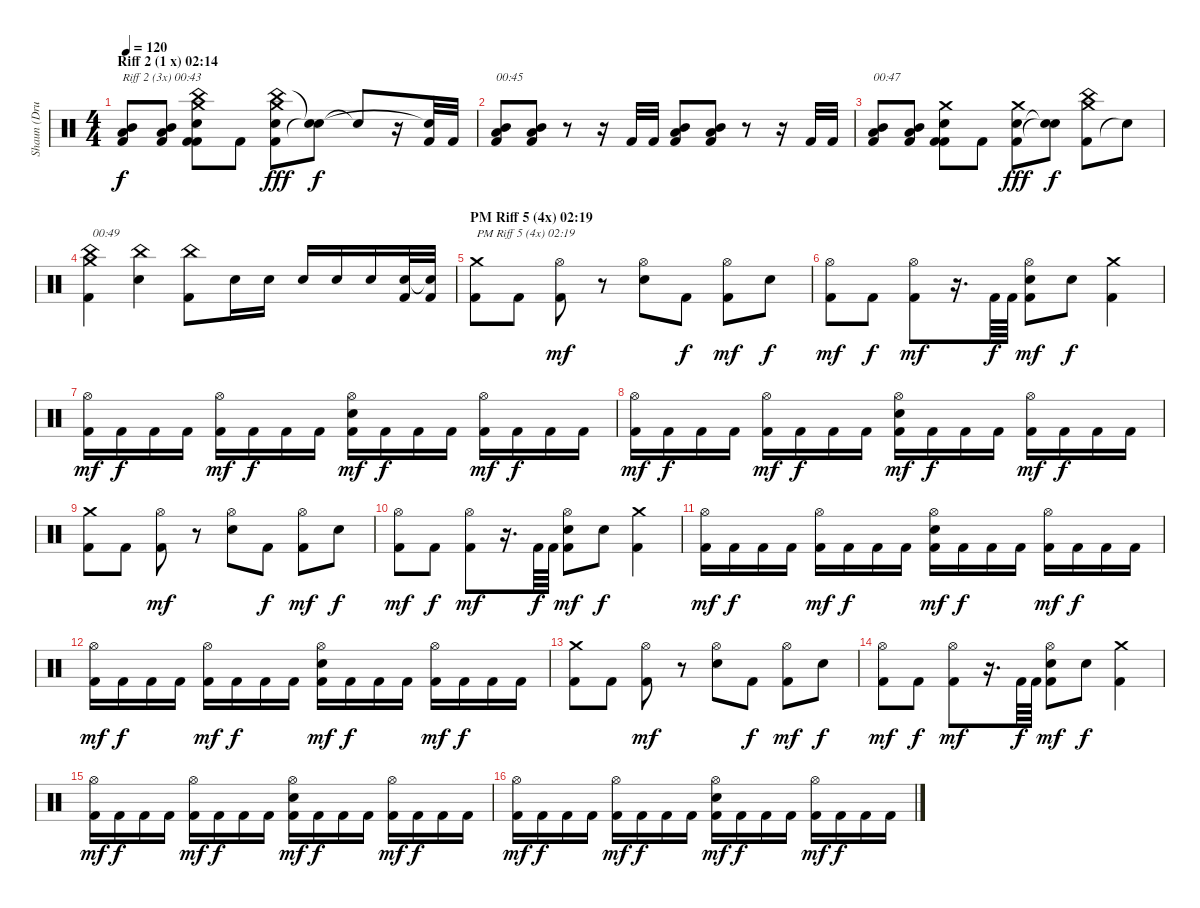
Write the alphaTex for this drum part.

\track ("Shaun (Drums Of DOOM)" "Shaun (Dru") {instrument percussion}
\staff {score}
\articulation defaults
\ts (4 4)
\section ("" "Riff 2 (1 x) 02:14")
\tempo 120
\clef neutral
\ks c
("Kick (hit) 2" "Low Tom (hit)" "Mid Tom (hit)").8{txt "Riff 2 (3x) 00:43" dy f} ("Kick (hit) 2" "Low Tom (hit)" "Mid Tom (hit)").8 ("Kick (hit) 2" "Kick (hit) 2" "China (hit)" "Electric Snare (hit)" "Crash medium (hit)").8 "Kick (hit) 2".8 ("Kick (hit) 2" "China (hit)" "Electric Snare (hit)" "Crash medium (hit)").8{dy fff} ("Snare (hit)"{t} "Snare (hit)"{t}).8{dy f} "Snare (hit)"{t}.8 r.16 ("Kick (hit) 2" "Snare (hit)"{t}).32 "Kick (hit) 2".32 |
("Kick (hit) 2" "Low Tom (hit)" "Mid Tom (hit)").8{txt "00:45"} ("Kick (hit) 2" "Low Tom (hit)" "Mid Tom (hit)").8 r.8 r.16 "Kick (hit) 2".32 "Kick (hit) 2".32 ("Kick (hit) 2" "Low Tom (hit)" "Mid Tom (hit)").8 ("Kick (hit) 2" "Low Tom (hit)" "Mid Tom (hit)").8 r.8 r.16 "Kick (hit) 2".32 "Kick (hit) 2".32 |
("Kick (hit) 2" "Low Tom (hit)" "Mid Tom (hit)").8{txt "00:47"} ("Kick (hit) 2" "Low Tom (hit)" "Mid Tom (hit)").8 ("Kick (hit) 2" "Kick (hit) 2" "Electric Snare (hit)" "Crash medium (hit)").8 "Kick (hit) 2".8 ("Kick (hit) 2" "Electric Snare (hit)" "Crash medium (hit)").8{dy fff} ("Snare (hit)"{t} "Snare (hit)"{t}).8{dy f} ("Kick (hit) 2" "China (hit)" "Crash medium (hit)").8 "Snare (hit)"{t}.8 |
("Kick (hit) 2" "China (hit)" "Crash medium (hit)").4{txt "00:49"} ("China (hit)" "Electric Snare (hit)").4 ("Kick (hit) 2" "China (hit)").8 "Electric Snare (hit)".16 "Electric Snare (hit)".16 "Electric Snare (hit)".16 "Electric Snare (hit)".16 "Electric Snare (hit)".16 ("Kick (hit) 2" "Electric Snare (hit)").32 ("Kick (hit) 2" "Snare (hit)"{t}).32 |
\section ("" "PM Riff 5 (4x) 02:19")
("Kick (hit) 2" "Crash medium (hit)").8{txt "PM Riff 5 (4x) 02:19"} "Kick (hit) 2".8 ("Kick (hit) 2" "Hi-Hat (open)").8{dy mf} r.8 ("Electric Snare (hit)" "Hi-Hat (open)").8 "Kick (hit) 2".8{dy f} ("Kick (hit) 2" "Hi-Hat (open)").8{dy mf} "Electric Snare (hit)".8{dy f} |
("Kick (hit) 2" "Hi-Hat (open)").8{dy mf} "Kick (hit) 2".8{dy f} ("Kick (hit) 2" "Hi-Hat (open)").8{dy mf} r.16{d} "Kick (hit) 2".64{dy f} "Kick (hit) 2".64 ("Kick (hit) 2" "Electric Snare (hit)" "Hi-Hat (open)").8{dy mf} "Electric Snare (hit)".8{dy f} ("Kick (hit) 2" "Crash medium (hit)").4 |
("Kick (hit) 2" "Hi-Hat (open)").16{dy mf} "Kick (hit) 2".16{dy f} "Kick (hit) 2".16 "Kick (hit) 2".16 ("Kick (hit) 2" "Hi-Hat (open)").16{dy mf} "Kick (hit) 2".16{dy f} "Kick (hit) 2".16 "Kick (hit) 2".16 ("Kick (hit) 2" "Electric Snare (hit)" "Hi-Hat (open)").16{dy mf} "Kick (hit) 2".16{dy f} "Kick (hit) 2".16 "Kick (hit) 2".16 ("Kick (hit) 2" "Hi-Hat (open)").16{dy mf} "Kick (hit) 2".16{dy f} "Kick (hit) 2".16 "Kick (hit) 2".16 |
("Kick (hit) 2" "Hi-Hat (open)").16{dy mf} "Kick (hit) 2".16{dy f} "Kick (hit) 2".16 "Kick (hit) 2".16 ("Kick (hit) 2" "Hi-Hat (open)").16{dy mf} "Kick (hit) 2".16{dy f} "Kick (hit) 2".16 "Kick (hit) 2".16 ("Kick (hit) 2" "Electric Snare (hit)" "Hi-Hat (open)").16{dy mf} "Kick (hit) 2".16{dy f} "Kick (hit) 2".16 "Kick (hit) 2".16 ("Kick (hit) 2" "Hi-Hat (open)").16{dy mf} "Kick (hit) 2".16{dy f} "Kick (hit) 2".16 "Kick (hit) 2".16 |
("Kick (hit) 2" "Crash medium (hit)").8 "Kick (hit) 2".8 ("Kick (hit) 2" "Hi-Hat (open)").8{dy mf} r.8 ("Electric Snare (hit)" "Hi-Hat (open)").8 "Kick (hit) 2".8{dy f} ("Kick (hit) 2" "Hi-Hat (open)").8{dy mf} "Electric Snare (hit)".8{dy f} |
("Kick (hit) 2" "Hi-Hat (open)").8{dy mf} "Kick (hit) 2".8{dy f} ("Kick (hit) 2" "Hi-Hat (open)").8{dy mf} r.16{d} "Kick (hit) 2".64{dy f} "Kick (hit) 2".64 ("Kick (hit) 2" "Electric Snare (hit)" "Hi-Hat (open)").8{dy mf} "Electric Snare (hit)".8{dy f} ("Kick (hit) 2" "Crash medium (hit)").4 |
("Kick (hit) 2" "Hi-Hat (open)").16{dy mf} "Kick (hit) 2".16{dy f} "Kick (hit) 2".16 "Kick (hit) 2".16 ("Kick (hit) 2" "Hi-Hat (open)").16{dy mf} "Kick (hit) 2".16{dy f} "Kick (hit) 2".16 "Kick (hit) 2".16 ("Kick (hit) 2" "Electric Snare (hit)" "Hi-Hat (open)").16{dy mf} "Kick (hit) 2".16{dy f} "Kick (hit) 2".16 "Kick (hit) 2".16 ("Kick (hit) 2" "Hi-Hat (open)").16{dy mf} "Kick (hit) 2".16{dy f} "Kick (hit) 2".16 "Kick (hit) 2".16 |
("Kick (hit) 2" "Hi-Hat (open)").16{dy mf} "Kick (hit) 2".16{dy f} "Kick (hit) 2".16 "Kick (hit) 2".16 ("Kick (hit) 2" "Hi-Hat (open)").16{dy mf} "Kick (hit) 2".16{dy f} "Kick (hit) 2".16 "Kick (hit) 2".16 ("Kick (hit) 2" "Electric Snare (hit)" "Hi-Hat (open)").16{dy mf} "Kick (hit) 2".16{dy f} "Kick (hit) 2".16 "Kick (hit) 2".16 ("Kick (hit) 2" "Hi-Hat (open)").16{dy mf} "Kick (hit) 2".16{dy f} "Kick (hit) 2".16 "Kick (hit) 2".16 |
("Kick (hit) 2" "Crash medium (hit)").8 "Kick (hit) 2".8 ("Kick (hit) 2" "Hi-Hat (open)").8{dy mf} r.8 ("Electric Snare (hit)" "Hi-Hat (open)").8 "Kick (hit) 2".8{dy f} ("Kick (hit) 2" "Hi-Hat (open)").8{dy mf} "Electric Snare (hit)".8{dy f} |
("Kick (hit) 2" "Hi-Hat (open)").8{dy mf} "Kick (hit) 2".8{dy f} ("Kick (hit) 2" "Hi-Hat (open)").8{dy mf} r.16{d} "Kick (hit) 2".64{dy f} "Kick (hit) 2".64 ("Kick (hit) 2" "Electric Snare (hit)" "Hi-Hat (open)").8{dy mf} "Electric Snare (hit)".8{dy f} ("Kick (hit) 2" "Crash medium (hit)").4 |
("Kick (hit) 2" "Hi-Hat (open)").16{dy mf} "Kick (hit) 2".16{dy f} "Kick (hit) 2".16 "Kick (hit) 2".16 ("Kick (hit) 2" "Hi-Hat (open)").16{dy mf} "Kick (hit) 2".16{dy f} "Kick (hit) 2".16 "Kick (hit) 2".16 ("Kick (hit) 2" "Electric Snare (hit)" "Hi-Hat (open)").16{dy mf} "Kick (hit) 2".16{dy f} "Kick (hit) 2".16 "Kick (hit) 2".16 ("Kick (hit) 2" "Hi-Hat (open)").16{dy mf} "Kick (hit) 2".16{dy f} "Kick (hit) 2".16 "Kick (hit) 2".16 |
("Kick (hit) 2" "Hi-Hat (open)").16{dy mf} "Kick (hit) 2".16{dy f} "Kick (hit) 2".16 "Kick (hit) 2".16 ("Kick (hit) 2" "Hi-Hat (open)").16{dy mf} "Kick (hit) 2".16{dy f} "Kick (hit) 2".16 "Kick (hit) 2".16 ("Kick (hit) 2" "Electric Snare (hit)" "Hi-Hat (open)").16{dy mf} "Kick (hit) 2".16{dy f} "Kick (hit) 2".16 "Kick (hit) 2".16 ("Kick (hit) 2" "Hi-Hat (open)").16{dy mf} "Kick (hit) 2".16{dy f} "Kick (hit) 2".16 "Kick (hit) 2".16
